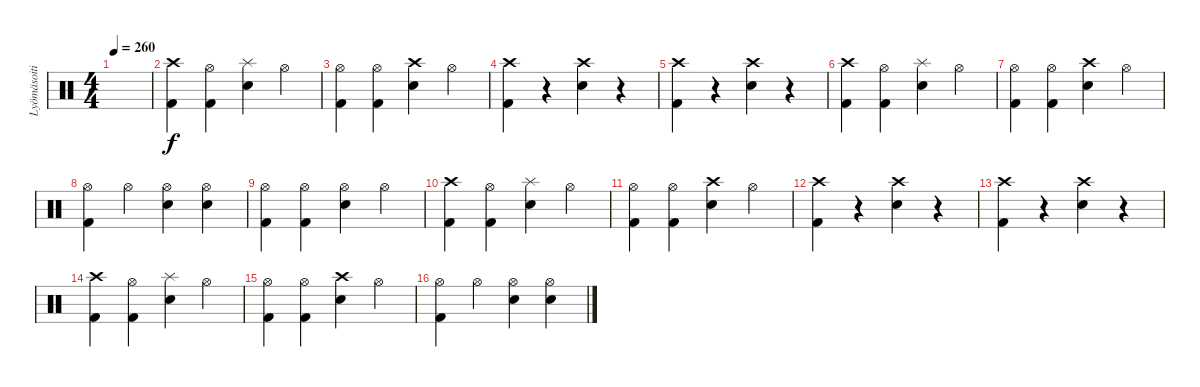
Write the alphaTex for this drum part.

\track ("Lyömäsoitin" "Lyömäsoiti") {instrument percussion}
\staff {score}
\articulation defaults
\ts (4 4)
\tempo 260
\clef neutral
\ks c
|
("Crash high (hit)" "Kick (hit) 2").4 ("Hi-Hat (open)" "Kick (hit) 2").4 ("Splash (hit)" "Electric Snare (hit)").4 "Hi-Hat (open)".4 |
("Hi-Hat (open)" "Kick (hit) 2").4 ("Hi-Hat (open)" "Kick (hit) 2").4 ("Crash high (hit)" "Electric Snare (hit)").4 "Hi-Hat (open)".4 |
("Crash high (hit)" "Kick (hit) 2").4 r.4 ("Crash high (hit)" "Electric Snare (hit)").4 r.4 |
("Crash high (hit)" "Kick (hit) 2").4 r.4 ("Crash high (hit)" "Electric Snare (hit)").4 r.4 |
("Crash high (hit)" "Kick (hit) 2").4 ("Hi-Hat (open)" "Kick (hit) 2").4 ("Splash (hit)" "Electric Snare (hit)").4 "Hi-Hat (open)".4 |
("Hi-Hat (open)" "Kick (hit) 2").4 ("Hi-Hat (open)" "Kick (hit) 2").4 ("Crash high (hit)" "Electric Snare (hit)").4 "Hi-Hat (open)".4 |
("Hi-Hat (open)" "Kick (hit) 2").4 "Hi-Hat (open)".4 ("Hi-Hat (open)" "Electric Snare (hit)").4 ("Hi-Hat (open)" "Electric Snare (hit)").4 |
("Hi-Hat (open)" "Kick (hit) 2").4 ("Hi-Hat (open)" "Kick (hit) 2").4 ("Hi-Hat (open)" "Electric Snare (hit)").4 "Hi-Hat (open)".4 |
("Crash high (hit)" "Kick (hit) 2").4 ("Hi-Hat (open)" "Kick (hit) 2").4 ("Splash (hit)" "Electric Snare (hit)").4 "Hi-Hat (open)".4 |
("Hi-Hat (open)" "Kick (hit) 2").4 ("Hi-Hat (open)" "Kick (hit) 2").4 ("Crash high (hit)" "Electric Snare (hit)").4 "Hi-Hat (open)".4 |
("Crash high (hit)" "Kick (hit) 2").4 r.4 ("Crash high (hit)" "Electric Snare (hit)").4 r.4 |
("Crash high (hit)" "Kick (hit) 2").4 r.4 ("Crash high (hit)" "Electric Snare (hit)").4 r.4 |
("Crash high (hit)" "Kick (hit) 2").4 ("Hi-Hat (open)" "Kick (hit) 2").4 ("Splash (hit)" "Electric Snare (hit)").4 "Hi-Hat (open)".4 |
("Hi-Hat (open)" "Kick (hit) 2").4 ("Hi-Hat (open)" "Kick (hit) 2").4 ("Crash high (hit)" "Electric Snare (hit)").4 "Hi-Hat (open)".4 |
("Hi-Hat (open)" "Kick (hit) 2").4 "Hi-Hat (open)".4 ("Hi-Hat (open)" "Electric Snare (hit)").4 ("Hi-Hat (open)" "Electric Snare (hit)").4
